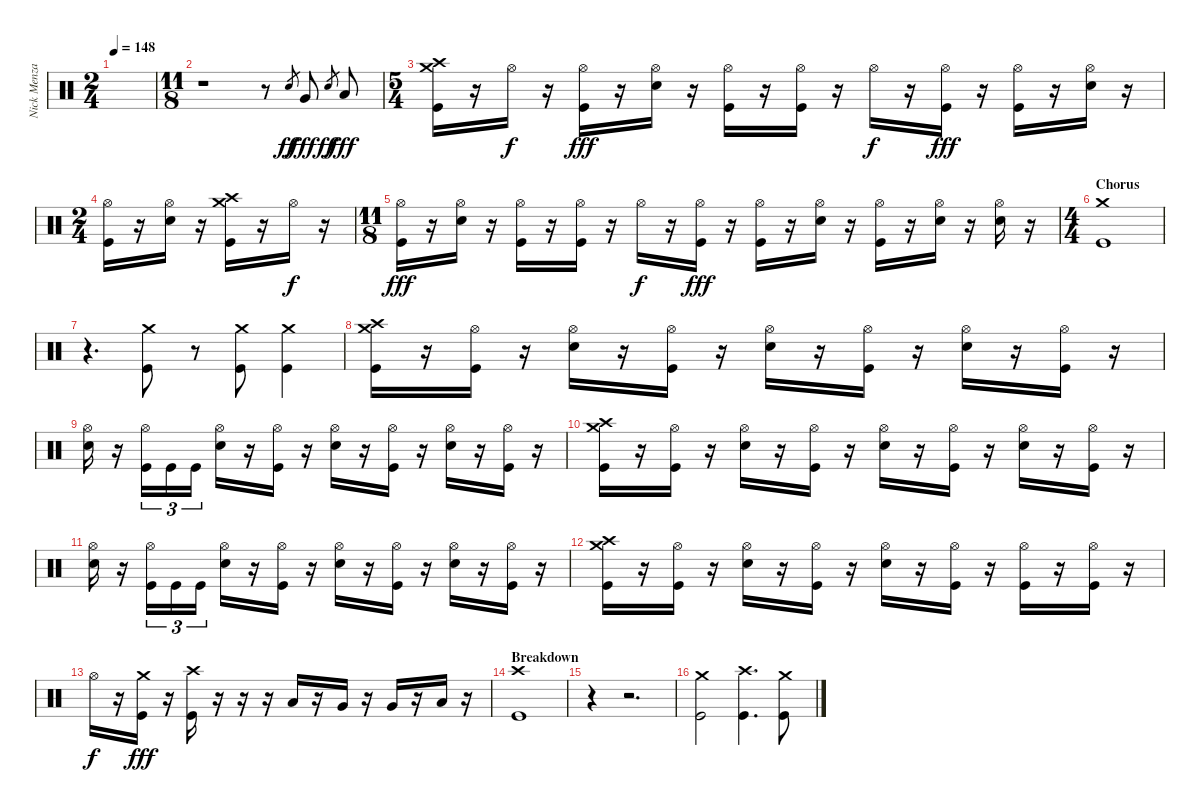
\track ("Nick Menza" "Nick Menza") {instrument percussion}
\staff {score}
\articulation defaults
\ts (2 4)
\tempo 148
\clef neutral
\ks c
|
\ts (11 8)
r.1 r.8 "Snare (hit)".8{gr dy ff} "Very Low Tom (hit)".8{dy fff} "Snare (hit)".8{gr dy ff} "Low Floor Tom (hit)".8{dy fff} |
\ts (5 4)
("Kick (hit)" "Crash high (hit)" "Crash medium (hit)").16 r.16 "Hi-Hat (open)".16{dy f} r.16 ("Kick (hit)" "Hi-Hat (open)").16{dy fff} r.16 ("Snare (hit) 2" "Hi-Hat (open)").16 r.16 ("Kick (hit)" "Hi-Hat (open)").16 r.16 ("Kick (hit)" "Hi-Hat (open)").16 r.16 "Hi-Hat (open)".16{dy f} r.16 ("Kick (hit)" "Hi-Hat (open)").16{dy fff} r.16 ("Kick (hit)" "Hi-Hat (open)").16 r.16 ("Snare (hit) 2" "Hi-Hat (open)").16 r.16 |
\ts (2 4)
("Kick (hit)" "Hi-Hat (open)").16 r.16 ("Snare (hit) 2" "Hi-Hat (open)").16 r.16 ("Kick (hit)" "Crash high (hit)" "Crash medium (hit)").16 r.16 "Hi-Hat (open)".16{dy f} r.16 |
\ts (11 8)
("Kick (hit)" "Hi-Hat (open)").16{dy fff} r.16 ("Snare (hit) 2" "Hi-Hat (open)").16 r.16 ("Kick (hit)" "Hi-Hat (open)").16 r.16 ("Kick (hit)" "Hi-Hat (open)").16 r.16 "Hi-Hat (open)".16{dy f} r.16 ("Kick (hit)" "Hi-Hat (open)").16{dy fff} r.16 ("Kick (hit)" "Hi-Hat (open)").16 r.16 ("Snare (hit) 2" "Hi-Hat (open)").16 r.16 ("Kick (hit)" "Hi-Hat (open)").16 r.16 ("Snare (hit) 2" "Hi-Hat (open)").16 r.16 ("Snare (hit) 2" "Hi-Hat (open)").16 r.16 |
\ts (4 4)
\section ("" "Chorus")
("Kick (hit)" "Crash medium (hit)").1 |
r.4{d} ("Kick (hit)" "Crash medium (hit)").8 r.8 ("Kick (hit)" "Crash medium (hit)").8 ("Kick (hit)" "Crash medium (hit)").4 |
("Kick (hit)" "Crash high (hit)" "Crash medium (hit)").16 r.16 ("Kick (hit)" "Hi-Hat (open)").16 r.16 ("Snare (hit) 2" "Hi-Hat (open)").16 r.16 ("Kick (hit)" "Hi-Hat (open)").16 r.16 ("Snare (hit) 2" "Hi-Hat (open)").16 r.16 ("Kick (hit)" "Hi-Hat (open)").16 r.16 ("Snare (hit) 2" "Hi-Hat (open)").16 r.16 ("Kick (hit)" "Hi-Hat (open)").16 r.16 |
("Snare (hit) 2" "Hi-Hat (open)").16 r.16 ("Kick (hit)" "Hi-Hat (open)").16{tu (3 2)} "Kick (hit)".16{tu (3 2)} "Kick (hit)".16{tu (3 2)} ("Snare (hit) 2" "Hi-Hat (open)").16 r.16 ("Kick (hit)" "Hi-Hat (open)").16 r.16 ("Snare (hit) 2" "Hi-Hat (open)").16 r.16 ("Kick (hit)" "Hi-Hat (open)").16 r.16 ("Snare (hit) 2" "Hi-Hat (open)").16 r.16 ("Kick (hit)" "Hi-Hat (open)").16 r.16 |
("Kick (hit)" "Crash high (hit)" "Crash medium (hit)").16 r.16 ("Kick (hit)" "Hi-Hat (open)").16 r.16 ("Snare (hit) 2" "Hi-Hat (open)").16 r.16 ("Kick (hit)" "Hi-Hat (open)").16 r.16 ("Snare (hit) 2" "Hi-Hat (open)").16 r.16 ("Kick (hit)" "Hi-Hat (open)").16 r.16 ("Snare (hit) 2" "Hi-Hat (open)").16 r.16 ("Kick (hit)" "Hi-Hat (open)").16 r.16 |
("Snare (hit) 2" "Hi-Hat (open)").16 r.16 ("Kick (hit)" "Hi-Hat (open)").16{tu (3 2)} "Kick (hit)".16{tu (3 2)} "Kick (hit)".16{tu (3 2)} ("Snare (hit) 2" "Hi-Hat (open)").16 r.16 ("Kick (hit)" "Hi-Hat (open)").16 r.16 ("Snare (hit) 2" "Hi-Hat (open)").16 r.16 ("Kick (hit)" "Hi-Hat (open)").16 r.16 ("Snare (hit) 2" "Hi-Hat (open)").16 r.16 ("Kick (hit)" "Hi-Hat (open)").16 r.16 |
("Kick (hit)" "Crash high (hit)" "Crash medium (hit)").16 r.16 ("Kick (hit)" "Hi-Hat (open)").16 r.16 ("Snare (hit) 2" "Hi-Hat (open)").16 r.16 ("Kick (hit)" "Hi-Hat (open)").16 r.16 ("Snare (hit) 2" "Hi-Hat (open)").16 r.16 ("Kick (hit)" "Hi-Hat (open)").16 r.16 ("Kick (hit)" "Hi-Hat (open)").16 r.16 ("Kick (hit)" "Hi-Hat (open)").16 r.16 |
"Hi-Hat (open)".16{dy f} r.16 ("Kick (hit)" "Crash medium (hit)").16{dy fff} r.16 ("Kick (hit)" "Crash high (hit)").16 r.16 r.16 r.16 "Low Tom (hit)".16 r.16 "Very Low Tom (hit)".16 r.16 "Very Low Tom (hit)".16 r.16 "Low Floor Tom (hit)".16 r.16 |
\section ("" "Breakdown")
("Kick (hit)" "Crash high (hit)").1 |
r.4 r.2{d} |
("Kick (hit)" "Crash medium (hit)").2 ("Kick (hit)" "Crash high (hit)").4{d} ("Kick (hit)" "Crash medium (hit)").8
